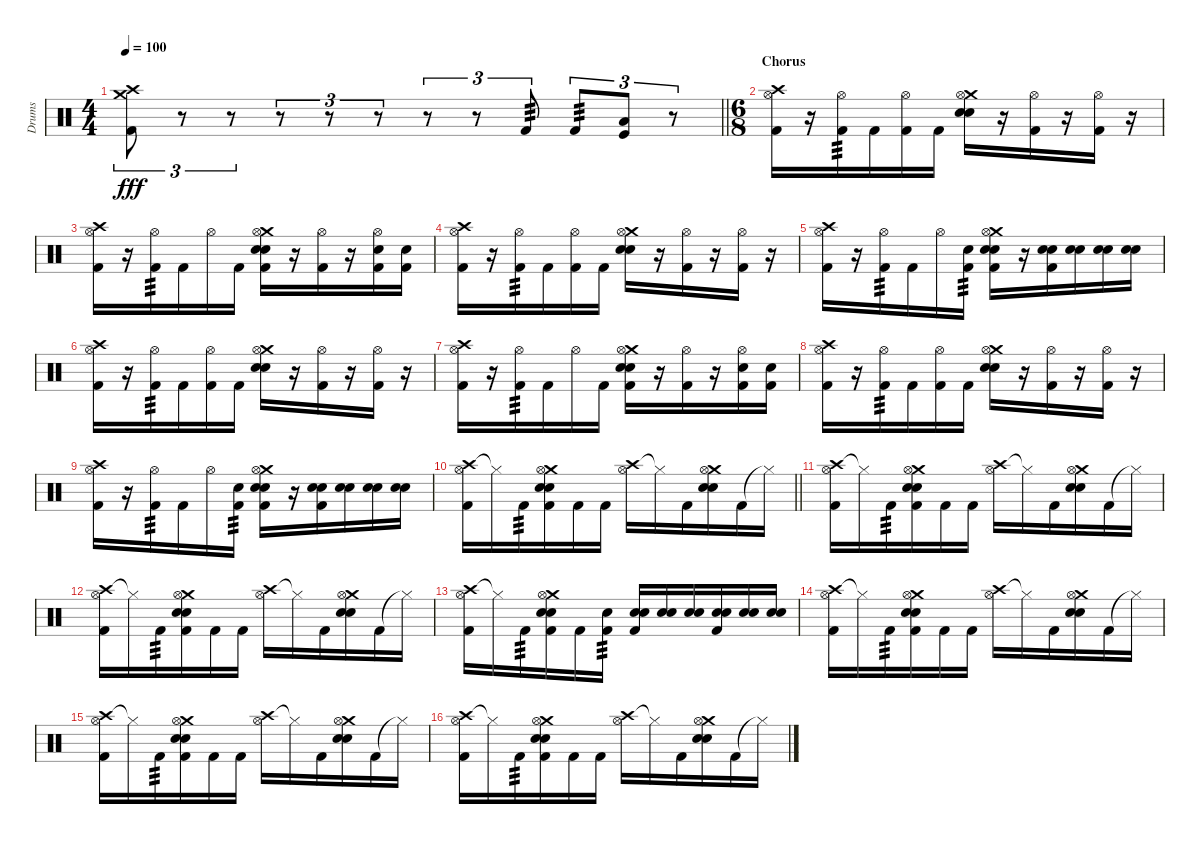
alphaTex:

\track ("Drums" "Drums") {instrument percussion}
\staff {score}
\articulation defaults
\ts (4 4)
\tempo 100
\clef neutral
\barLineRight lightlight
\ks c
("Crash medium (hit)" "Crash high (hit)" "Kick (hit) 2").8{tu (3 2) dy fff} r.8{tu (3 2)} r.8{tu (3 2)} r.8{tu (3 2)} r.8{tu (3 2)} r.8{tu (3 2)} r.8{tu (3 2)} r.8{tu (3 2)} "Kick (hit) 2".8{tu (3 2) tp 3} "Kick (hit) 2".8{tu (3 2) tp 3} ("Low Floor Tom (hit)" "Kick (hit)").8{tu (3 2)} r.8{tu (3 2)} |
\ts (6 8)
\section ("" "Chorus")
("Crash high (hit)" "Hi-Hat (open)" "Kick (hit) 2").16 r.16 ("Hi-Hat (open)" "Kick (hit) 2").16{tp 3} "Kick (hit) 2".16 ("Hi-Hat (open)" "Kick (hit) 2").16 "Kick (hit) 2".16 ("Crash medium (hit)" "Hi-Hat (open)" "Snare (hit) 2" "Electric Snare (hit)").16 r.16 ("Hi-Hat (open)" "Kick (hit) 2").16 r.16 ("Hi-Hat (open)" "Kick (hit) 2").16 r.16 |
("Crash high (hit)" "Hi-Hat (open)" "Kick (hit) 2").16 r.16 ("Hi-Hat (open)" "Kick (hit) 2").16{tp 3} "Kick (hit) 2".16 "Hi-Hat (open)".16 "Kick (hit) 2".16 ("Crash medium (hit)" "Hi-Hat (open)" "Snare (hit) 2" "Electric Snare (hit)" "Kick (hit) 2").16 r.16 ("Hi-Hat (open)" "Kick (hit) 2").16 r.16 ("Hi-Hat (open)" "Electric Snare (hit)" "Kick (hit) 2").16 ("Electric Snare (hit)" "Kick (hit) 2").16 |
("Crash high (hit)" "Hi-Hat (open)" "Kick (hit) 2").16 r.16 ("Hi-Hat (open)" "Kick (hit) 2").16{tp 3} "Kick (hit) 2".16 ("Hi-Hat (open)" "Kick (hit) 2").16 "Kick (hit) 2".16 ("Crash medium (hit)" "Hi-Hat (open)" "Snare (hit) 2" "Electric Snare (hit)").16 r.16 ("Hi-Hat (open)" "Kick (hit) 2").16 r.16 ("Hi-Hat (open)" "Kick (hit) 2").16 r.16 |
("Crash high (hit)" "Hi-Hat (open)" "Kick (hit) 2").16 r.16 ("Hi-Hat (open)" "Kick (hit) 2").16{tp 3} "Kick (hit) 2".16 "Hi-Hat (open)".16 ("Electric Snare (hit)" "Kick (hit) 2").16{tp 3} ("Crash medium (hit)" "Hi-Hat (open)" "Snare (hit) 2" "Electric Snare (hit)" "Kick (hit) 2").16 r.16 ("Snare (hit) 2" "Electric Snare (hit)" "Kick (hit) 2").16 ("Snare (hit) 2" "Electric Snare (hit)").16 ("Snare (hit) 2" "Electric Snare (hit)").16 ("Snare (hit) 2" "Electric Snare (hit)").16 |
("Crash high (hit)" "Hi-Hat (open)" "Kick (hit) 2").16 r.16 ("Hi-Hat (open)" "Kick (hit) 2").16{tp 3} "Kick (hit) 2".16 ("Hi-Hat (open)" "Kick (hit) 2").16 "Kick (hit) 2".16 ("Crash medium (hit)" "Hi-Hat (open)" "Snare (hit) 2" "Electric Snare (hit)").16 r.16 ("Hi-Hat (open)" "Kick (hit) 2").16 r.16 ("Hi-Hat (open)" "Kick (hit) 2").16 r.16 |
("Crash high (hit)" "Hi-Hat (open)" "Kick (hit) 2").16 r.16 ("Hi-Hat (open)" "Kick (hit) 2").16{tp 3} "Kick (hit) 2".16 "Hi-Hat (open)".16 "Kick (hit) 2".16 ("Crash medium (hit)" "Hi-Hat (open)" "Snare (hit) 2" "Electric Snare (hit)" "Kick (hit) 2").16 r.16 ("Hi-Hat (open)" "Kick (hit) 2").16 r.16 ("Hi-Hat (open)" "Electric Snare (hit)" "Kick (hit) 2").16 ("Electric Snare (hit)" "Kick (hit) 2").16 |
("Crash high (hit)" "Hi-Hat (open)" "Kick (hit) 2").16 r.16 ("Hi-Hat (open)" "Kick (hit) 2").16{tp 3} "Kick (hit) 2".16 ("Hi-Hat (open)" "Kick (hit) 2").16 "Kick (hit) 2".16 ("Crash medium (hit)" "Hi-Hat (open)" "Snare (hit) 2" "Electric Snare (hit)").16 r.16 ("Hi-Hat (open)" "Kick (hit) 2").16 r.16 ("Hi-Hat (open)" "Kick (hit) 2").16 r.16 |
("Crash high (hit)" "Hi-Hat (open)" "Kick (hit) 2").16 r.16 ("Hi-Hat (open)" "Kick (hit) 2").16{tp 3} "Kick (hit) 2".16 "Hi-Hat (open)".16 ("Electric Snare (hit)" "Kick (hit) 2").16{tp 3} ("Crash medium (hit)" "Hi-Hat (open)" "Snare (hit) 2" "Electric Snare (hit)" "Kick (hit) 2").16 r.16 ("Snare (hit) 2" "Electric Snare (hit)" "Kick (hit) 2").16 ("Snare (hit) 2" "Electric Snare (hit)").16 ("Snare (hit) 2" "Electric Snare (hit)").16 ("Snare (hit) 2" "Electric Snare (hit)").16 |
\barLineRight lightlight
("Crash high (hit)" "Hi-Hat (open)" "Kick (hit) 2").16 "Hi-Hat (closed)"{t}.16 "Kick (hit) 2".16{tp 3} ("Crash medium (hit)" "Hi-Hat (open)" "Snare (hit) 2" "Electric Snare (hit)" "Kick (hit) 2").16 "Kick (hit) 2".16 "Kick (hit) 2".16 ("Crash high (hit)" "Hi-Hat (open)").16 "Hi-Hat (closed)"{t}.16 "Kick (hit) 2".16 ("Crash medium (hit)" "Hi-Hat (open)" "Snare (hit) 2" "Electric Snare (hit)").16 "Kick (hit) 2".16 "Hi-Hat (closed)"{t}.16 |
("Crash high (hit)" "Hi-Hat (open)" "Kick (hit) 2").16 "Hi-Hat (closed)"{t}.16 "Kick (hit) 2".16{tp 3} ("Crash medium (hit)" "Hi-Hat (open)" "Snare (hit) 2" "Electric Snare (hit)" "Kick (hit) 2").16 "Kick (hit) 2".16 "Kick (hit) 2".16 ("Crash high (hit)" "Hi-Hat (open)").16 "Hi-Hat (closed)"{t}.16 "Kick (hit) 2".16 ("Crash medium (hit)" "Hi-Hat (open)" "Snare (hit) 2" "Electric Snare (hit)").16 "Kick (hit) 2".16 "Hi-Hat (closed)"{t}.16 |
("Crash high (hit)" "Hi-Hat (open)" "Kick (hit) 2").16 "Hi-Hat (closed)"{t}.16 "Kick (hit) 2".16{tp 3} ("Crash medium (hit)" "Hi-Hat (open)" "Snare (hit) 2" "Electric Snare (hit)" "Kick (hit) 2").16 "Kick (hit) 2".16 "Kick (hit) 2".16 ("Crash high (hit)" "Hi-Hat (open)").16 "Hi-Hat (closed)"{t}.16 "Kick (hit) 2".16 ("Crash medium (hit)" "Hi-Hat (open)" "Snare (hit) 2" "Electric Snare (hit)").16 "Kick (hit) 2".16 "Hi-Hat (closed)"{t}.16 |
("Crash high (hit)" "Hi-Hat (open)" "Kick (hit) 2").16 "Hi-Hat (closed)"{t}.16 "Kick (hit) 2".16{tp 3} ("Crash medium (hit)" "Hi-Hat (open)" "Snare (hit) 2" "Electric Snare (hit)" "Kick (hit) 2").16 "Kick (hit) 2".16 ("Electric Snare (hit)" "Kick (hit) 2").16{tp 3} ("Snare (hit) 2" "Electric Snare (hit)" "Kick (hit) 2").16 ("Snare (hit) 2" "Electric Snare (hit)").16 ("Snare (hit) 2" "Electric Snare (hit)").16 ("Snare (hit) 2" "Electric Snare (hit)" "Kick (hit) 2").16 ("Snare (hit) 2" "Electric Snare (hit)").16 ("Snare (hit) 2" "Electric Snare (hit)").16 |
("Crash high (hit)" "Hi-Hat (open)" "Kick (hit) 2").16 "Hi-Hat (closed)"{t}.16 "Kick (hit) 2".16{tp 3} ("Crash medium (hit)" "Hi-Hat (open)" "Snare (hit) 2" "Electric Snare (hit)" "Kick (hit) 2").16 "Kick (hit) 2".16 "Kick (hit) 2".16 ("Crash high (hit)" "Hi-Hat (open)").16 "Hi-Hat (closed)"{t}.16 "Kick (hit) 2".16 ("Crash medium (hit)" "Hi-Hat (open)" "Snare (hit) 2" "Electric Snare (hit)").16 "Kick (hit) 2".16 "Hi-Hat (closed)"{t}.16 |
("Crash high (hit)" "Hi-Hat (open)" "Kick (hit) 2").16 "Hi-Hat (closed)"{t}.16 "Kick (hit) 2".16{tp 3} ("Crash medium (hit)" "Hi-Hat (open)" "Snare (hit) 2" "Electric Snare (hit)" "Kick (hit) 2").16 "Kick (hit) 2".16 "Kick (hit) 2".16 ("Crash high (hit)" "Hi-Hat (open)").16 "Hi-Hat (closed)"{t}.16 "Kick (hit) 2".16 ("Crash medium (hit)" "Hi-Hat (open)" "Snare (hit) 2" "Electric Snare (hit)").16 "Kick (hit) 2".16 "Hi-Hat (closed)"{t}.16 |
("Crash high (hit)" "Hi-Hat (open)" "Kick (hit) 2").16 "Hi-Hat (closed)"{t}.16 "Kick (hit) 2".16{tp 3} ("Crash medium (hit)" "Hi-Hat (open)" "Snare (hit) 2" "Electric Snare (hit)" "Kick (hit) 2").16 "Kick (hit) 2".16 "Kick (hit) 2".16 ("Crash high (hit)" "Hi-Hat (open)").16 "Hi-Hat (closed)"{t}.16 "Kick (hit) 2".16 ("Crash medium (hit)" "Hi-Hat (open)" "Snare (hit) 2" "Electric Snare (hit)").16 "Kick (hit) 2".16 "Hi-Hat (closed)"{t}.16
